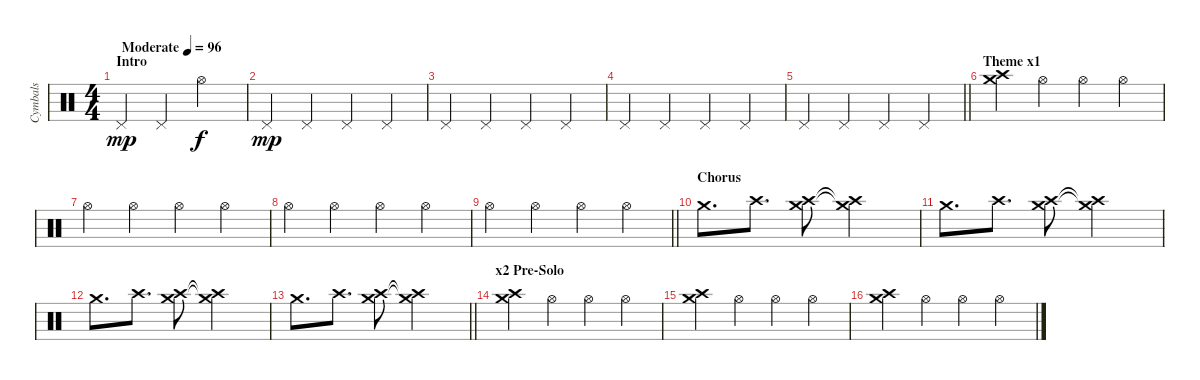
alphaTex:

\track ("Cymbals" "Cymbals") {instrument percussion}
\staff {score}
\articulation defaults
\ts (4 4)
\section ("" "Intro")
\tempo (96 "Moderate")
\clef neutral
\ks c "Pedal Hi-Hat (hit)".4{dy mp} "Pedal Hi-Hat (hit)".4 "Hi-Hat (open)".2{dy f}
|
"Pedal Hi-Hat (hit)".4{dy mp} "Pedal Hi-Hat (hit)".4 "Pedal Hi-Hat (hit)".4 "Pedal Hi-Hat (hit)".4 |
"Pedal Hi-Hat (hit)".4 "Pedal Hi-Hat (hit)".4 "Pedal Hi-Hat (hit)".4 "Pedal Hi-Hat (hit)".4 |
"Pedal Hi-Hat (hit)".4 "Pedal Hi-Hat (hit)".4 "Pedal Hi-Hat (hit)".4 "Pedal Hi-Hat (hit)".4 |
\barLineRight lightlight "Pedal Hi-Hat (hit)".4 "Pedal Hi-Hat (hit)".4 "Pedal Hi-Hat (hit)".4 "Pedal Hi-Hat (hit)".4
|
\section ("" "Theme x1")
("Crash medium (hit)" "Crash high (hit)").4 "Hi-Hat (open)".4 "Hi-Hat (open)".4 "Hi-Hat (open)".4 |
"Hi-Hat (open)".4 "Hi-Hat (open)".4 "Hi-Hat (open)".4 "Hi-Hat (open)".4 |
"Hi-Hat (open)".4 "Hi-Hat (open)".4 "Hi-Hat (open)".4 "Hi-Hat (open)".4 |
\barLineRight lightlight "Hi-Hat (open)".4 "Hi-Hat (open)".4 "Hi-Hat (open)".4 "Hi-Hat (open)".4
|
\section ("" "Chorus")
"Crash medium (hit)".8{d} "Crash high (hit)".8{d} ("Crash medium (hit)" "Crash high (hit)").8 ("Crash medium (hit)"{t} "Crash high (hit)"{t}).2 |
"Crash medium (hit)".8{d} "Crash high (hit)".8{d} ("Crash medium (hit)" "Crash high (hit)").8 ("Crash medium (hit)"{t} "Crash high (hit)"{t}).2 |
"Crash medium (hit)".8{d} "Crash high (hit)".8{d} ("Crash medium (hit)" "Crash high (hit)").8 ("Crash medium (hit)"{t} "Crash high (hit)"{t}).2 |
\barLineRight lightlight "Crash medium (hit)".8{d} "Crash high (hit)".8{d}
("Crash medium (hit)" "Crash high (hit)").8 ("Crash medium (hit)"{t} "Crash high (hit)"{t}).2 |
\section ("" "x2 Pre-Solo")
("Crash medium (hit)" "Crash high (hit)").4 "Hi-Hat (open)".4 "Hi-Hat (open)".4 "Hi-Hat (open)".4 |
("Crash medium (hit)" "Crash high (hit)").4 "Hi-Hat (open)".4 "Hi-Hat (open)".4 "Hi-Hat (open)".4 |
("Crash medium (hit)" "Crash high (hit)").4 "Hi-Hat (open)".4 "Hi-Hat (open)".4 "Hi-Hat (open)".4
